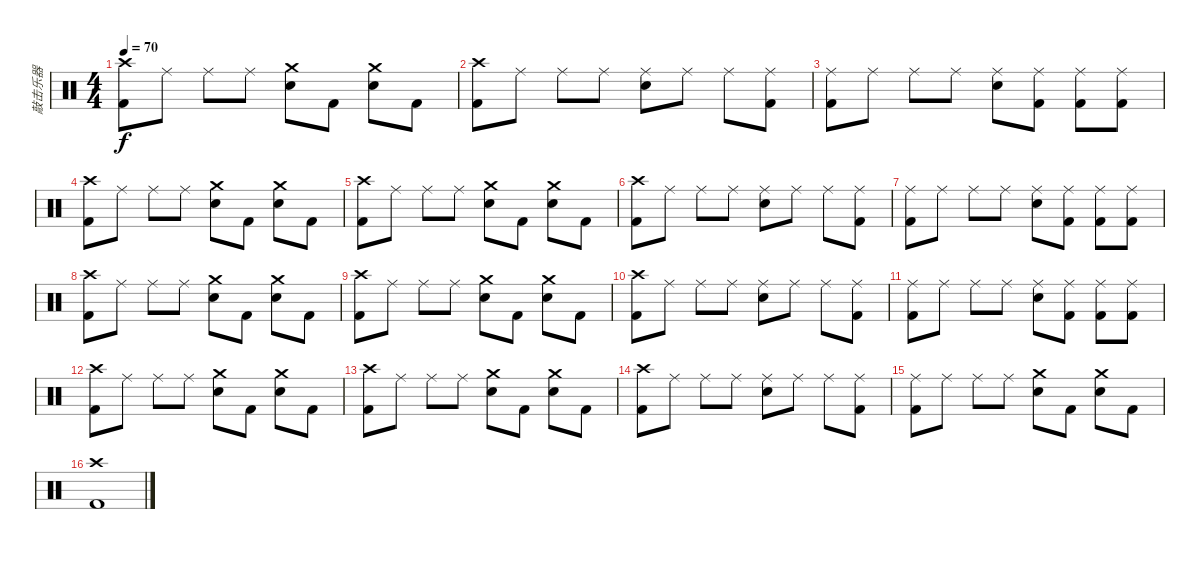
\track ("敲击乐器" "敲击乐器") {instrument percussion}
\staff {score}
\articulation defaults
\ts (4 4)
\tempo 70
\clef neutral
\ks c
("Kick (hit) 2" "Crash high (hit)").8{dy f} "Ride (middle)".8 "Ride (middle)".8 "Ride (middle)".8 ("Snare (hit) 2" "Crash medium (hit)").8 "Kick (hit) 2".8 ("Snare (hit) 2" "Crash medium (hit)").8 "Kick (hit) 2".8 |
("Kick (hit) 2" "Crash high (hit)").8 "Ride (middle)".8 "Ride (middle)".8 "Ride (middle)".8 ("Snare (hit) 2" "Ride (middle)").8 "Ride (middle)".8 "Ride (middle)".8 ("Kick (hit) 2" "Ride (middle)").8 |
("Kick (hit) 2" "Ride (middle)").8 "Ride (middle)".8 "Ride (middle)".8 "Ride (middle)".8 ("Snare (hit) 2" "Ride (middle)").8 ("Kick (hit) 2" "Ride (middle)").8 ("Ride (middle)" "Kick (hit) 2").8 ("Kick (hit) 2" "Ride (middle)").8 |
("Kick (hit) 2" "Crash high (hit)").8 "Ride (middle)".8 "Ride (middle)".8 "Ride (middle)".8 ("Snare (hit) 2" "Crash medium (hit)").8 "Kick (hit) 2".8 ("Snare (hit) 2" "Crash medium (hit)").8 "Kick (hit) 2".8 |
("Kick (hit) 2" "Crash high (hit)").8 "Ride (middle)".8 "Ride (middle)".8 "Ride (middle)".8 ("Snare (hit) 2" "Crash medium (hit)").8 "Kick (hit) 2".8 ("Snare (hit) 2" "Crash medium (hit)").8 "Kick (hit) 2".8 |
("Kick (hit) 2" "Crash high (hit)").8 "Ride (middle)".8 "Ride (middle)".8 "Ride (middle)".8 ("Snare (hit) 2" "Ride (middle)").8 "Ride (middle)".8 "Ride (middle)".8 ("Kick (hit) 2" "Ride (middle)").8 |
("Kick (hit) 2" "Ride (middle)").8 "Ride (middle)".8 "Ride (middle)".8 "Ride (middle)".8 ("Snare (hit) 2" "Ride (middle)").8 ("Kick (hit) 2" "Ride (middle)").8 ("Ride (middle)" "Kick (hit) 2").8 ("Kick (hit) 2" "Ride (middle)").8 |
("Kick (hit) 2" "Crash high (hit)").8 "Ride (middle)".8 "Ride (middle)".8 "Ride (middle)".8 ("Snare (hit) 2" "Crash medium (hit)").8 "Kick (hit) 2".8 ("Snare (hit) 2" "Crash medium (hit)").8 "Kick (hit) 2".8 |
("Kick (hit) 2" "Crash high (hit)").8 "Ride (middle)".8 "Ride (middle)".8 "Ride (middle)".8 ("Snare (hit) 2" "Crash medium (hit)").8 "Kick (hit) 2".8 ("Snare (hit) 2" "Crash medium (hit)").8 "Kick (hit) 2".8 |
("Kick (hit) 2" "Crash high (hit)").8 "Ride (middle)".8 "Ride (middle)".8 "Ride (middle)".8 ("Snare (hit) 2" "Ride (middle)").8 "Ride (middle)".8 "Ride (middle)".8 ("Kick (hit) 2" "Ride (middle)").8 |
("Kick (hit) 2" "Ride (middle)").8 "Ride (middle)".8 "Ride (middle)".8 "Ride (middle)".8 ("Snare (hit) 2" "Ride (middle)").8 ("Kick (hit) 2" "Ride (middle)").8 ("Ride (middle)" "Kick (hit) 2").8 ("Kick (hit) 2" "Ride (middle)").8 |
("Kick (hit) 2" "Crash high (hit)").8 "Ride (middle)".8 "Ride (middle)".8 "Ride (middle)".8 ("Snare (hit) 2" "Crash medium (hit)").8 "Kick (hit) 2".8 ("Snare (hit) 2" "Crash medium (hit)").8 "Kick (hit) 2".8 |
("Kick (hit) 2" "Crash high (hit)").8 "Ride (middle)".8 "Ride (middle)".8 "Ride (middle)".8 ("Snare (hit) 2" "Crash medium (hit)").8 "Kick (hit) 2".8 ("Snare (hit) 2" "Crash medium (hit)").8 "Kick (hit) 2".8 |
("Kick (hit) 2" "Crash high (hit)").8 "Ride (middle)".8 "Ride (middle)".8 "Ride (middle)".8 ("Snare (hit) 2" "Ride (middle)").8 "Ride (middle)".8 "Ride (middle)".8 ("Kick (hit) 2" "Ride (middle)").8 |
("Kick (hit) 2" "Ride (middle)").8 "Ride (middle)".8 "Ride (middle)".8 "Ride (middle)".8 ("Snare (hit) 2" "Crash medium (hit)").8 "Kick (hit) 2".8 ("Snare (hit) 2" "Crash medium (hit)").8 "Kick (hit) 2".8 |
("Kick (hit) 2" "Crash high (hit)").1
